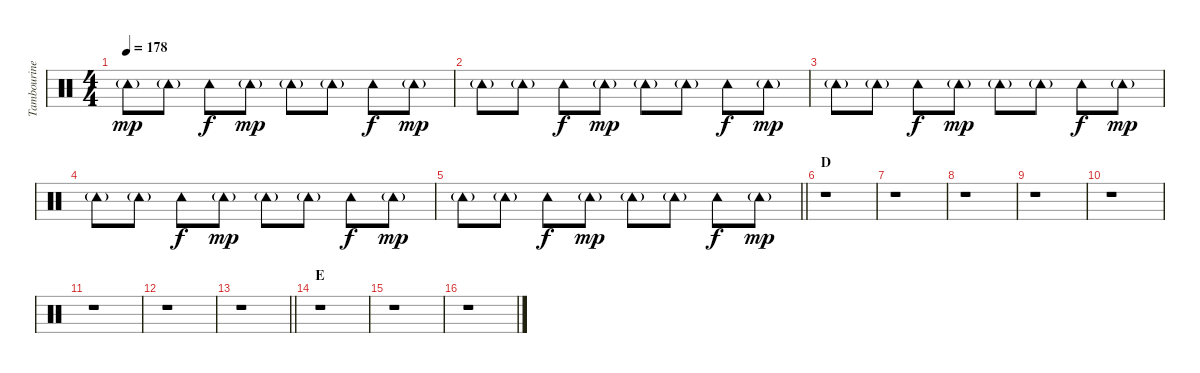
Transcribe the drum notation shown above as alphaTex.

\track ("Tambourine" "Tambourine") {instrument percussion}
\staff {score}
\articulation defaults
\ts (4 4)
\tempo 178
\clef neutral
\ks c "Tambourine (hit)"{g}.8{dy mp} "Tambourine (hit)"{g}.8 "Tambourine (hit)".8{dy f} "Tambourine (hit)"{g}.8{dy mp} "Tambourine (hit)"{g}.8 "Tambourine (hit)"{g}.8 "Tambourine (hit)".8{dy f} "Tambourine (hit)"{g}.8{dy mp}
|
"Tambourine (hit)"{g}.8 "Tambourine (hit)"{g}.8 "Tambourine (hit)".8{dy f} "Tambourine (hit)"{g}.8{dy mp} "Tambourine (hit)"{g}.8 "Tambourine (hit)"{g}.8 "Tambourine (hit)".8{dy f} "Tambourine (hit)"{g}.8{dy mp} |
"Tambourine (hit)"{g}.8 "Tambourine (hit)"{g}.8 "Tambourine (hit)".8{dy f} "Tambourine (hit)"{g}.8{dy mp} "Tambourine (hit)"{g}.8 "Tambourine (hit)"{g}.8 "Tambourine (hit)".8{dy f} "Tambourine (hit)"{g}.8{dy mp} |
"Tambourine (hit)"{g}.8 "Tambourine (hit)"{g}.8 "Tambourine (hit)".8{dy f} "Tambourine (hit)"{g}.8{dy mp} "Tambourine (hit)"{g}.8 "Tambourine (hit)"{g}.8 "Tambourine (hit)".8{dy f} "Tambourine (hit)"{g}.8{dy mp} |
\barLineRight lightlight "Tambourine (hit)"{g}.8 "Tambourine (hit)"{g}.8 "Tambourine (hit)".8{dy f} "Tambourine (hit)"{g}.8{dy mp} "Tambourine (hit)"{g}.8 "Tambourine (hit)"{g}.8 "Tambourine (hit)".8{dy f} "Tambourine (hit)"{g}.8{dy mp}
|
\section ("" "D")
r.1 |
r.1 |
r.1 |
r.1 |
r.1 |
r.1 |
r.1 |
\barLineRight lightlight
r.1 |
\section ("" "E")
r.1 |
r.1 |
r.1
